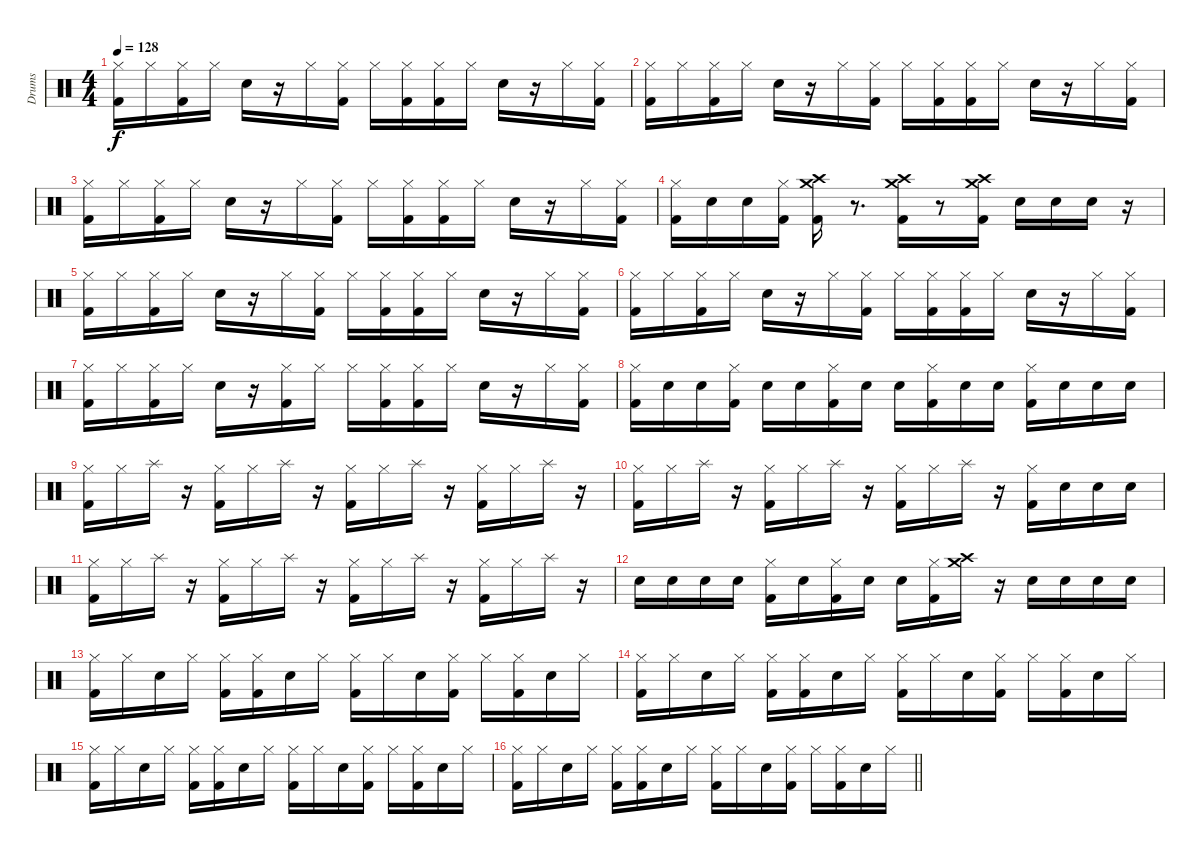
\track ("Drums" "Drums") {instrument percussion}
\staff {score}
\articulation defaults
\ts (4 4)
\tempo 128
\clef neutral
\ks c
("Hi-Hat (closed)" "Kick (hit) 2").16{dy f} "Hi-Hat (closed)".16 ("Hi-Hat (closed)" "Kick (hit) 2").16 "Hi-Hat (closed)".16 "Snare (hit) 2".16 r.16 "Hi-Hat (closed)".16 ("Hi-Hat (closed)" "Kick (hit) 2").16 "Hi-Hat (closed)".16 ("Hi-Hat (closed)" "Kick (hit) 2").16 ("Hi-Hat (closed)" "Kick (hit) 2").16 "Hi-Hat (closed)".16 "Snare (hit) 2".16 r.16 "Hi-Hat (closed)".16 ("Hi-Hat (closed)" "Kick (hit) 2").16 |
("Hi-Hat (closed)" "Kick (hit) 2").16 "Hi-Hat (closed)".16 ("Hi-Hat (closed)" "Kick (hit) 2").16 "Hi-Hat (closed)".16 "Snare (hit) 2".16 r.16 "Hi-Hat (closed)".16 ("Hi-Hat (closed)" "Kick (hit) 2").16 "Hi-Hat (closed)".16 ("Hi-Hat (closed)" "Kick (hit) 2").16 ("Hi-Hat (closed)" "Kick (hit) 2").16 "Hi-Hat (closed)".16 "Snare (hit) 2".16 r.16 "Hi-Hat (closed)".16 ("Hi-Hat (closed)" "Kick (hit) 2").16 |
("Hi-Hat (closed)" "Kick (hit) 2").16 "Hi-Hat (closed)".16 ("Hi-Hat (closed)" "Kick (hit) 2").16 "Hi-Hat (closed)".16 "Snare (hit) 2".16 r.16 "Hi-Hat (closed)".16 ("Hi-Hat (closed)" "Kick (hit) 2").16 "Hi-Hat (closed)".16 ("Hi-Hat (closed)" "Kick (hit) 2").16 ("Hi-Hat (closed)" "Kick (hit) 2").16 "Hi-Hat (closed)".16 "Snare (hit) 2".16 r.16 "Hi-Hat (closed)".16 ("Hi-Hat (closed)" "Kick (hit) 2").16 |
("Hi-Hat (closed)" "Kick (hit) 2").16 "Snare (hit) 2".16 "Snare (hit) 2".16 ("Hi-Hat (closed)" "Kick (hit) 2").16 ("Crash medium (hit)" "Crash high (hit)" "Kick (hit) 2").16 r.8{d} ("Crash medium (hit)" "Crash high (hit)" "Kick (hit) 2").16 r.8 ("Crash medium (hit)" "Crash high (hit)" "Kick (hit) 2").16 "Snare (hit) 2".16 "Snare (hit) 2".16 "Snare (hit) 2".16 r.16 |
("Hi-Hat (closed)" "Kick (hit) 2").16 "Hi-Hat (closed)".16 ("Hi-Hat (closed)" "Kick (hit) 2").16 "Hi-Hat (closed)".16 "Snare (hit) 2".16 r.16 "Hi-Hat (closed)".16 ("Hi-Hat (closed)" "Kick (hit) 2").16 "Hi-Hat (closed)".16 ("Hi-Hat (closed)" "Kick (hit) 2").16 ("Hi-Hat (closed)" "Kick (hit) 2").16 "Hi-Hat (closed)".16 "Snare (hit) 2".16 r.16 "Hi-Hat (closed)".16 ("Hi-Hat (closed)" "Kick (hit) 2").16 |
("Hi-Hat (closed)" "Kick (hit) 2").16 "Hi-Hat (closed)".16 ("Hi-Hat (closed)" "Kick (hit) 2").16 "Hi-Hat (closed)".16 "Snare (hit) 2".16 r.16 "Hi-Hat (closed)".16 ("Hi-Hat (closed)" "Kick (hit) 2").16 "Hi-Hat (closed)".16 ("Hi-Hat (closed)" "Kick (hit) 2").16 ("Hi-Hat (closed)" "Kick (hit) 2").16 "Hi-Hat (closed)".16 "Snare (hit) 2".16 r.16 "Hi-Hat (closed)".16 ("Hi-Hat (closed)" "Kick (hit) 2").16 |
("Hi-Hat (closed)" "Kick (hit) 2").16 "Hi-Hat (closed)".16 ("Hi-Hat (closed)" "Kick (hit) 2").16 "Hi-Hat (closed)".16 "Snare (hit) 2".16 r.16 ("Hi-Hat (closed)" "Kick (hit) 2").16 "Hi-Hat (closed)".16 "Hi-Hat (closed)".16 ("Hi-Hat (closed)" "Kick (hit) 2").16 ("Hi-Hat (closed)" "Kick (hit) 2").16 "Hi-Hat (closed)".16 "Snare (hit) 2".16 r.16 "Hi-Hat (closed)".16 ("Hi-Hat (closed)" "Kick (hit) 2").16 |
("Hi-Hat (closed)" "Kick (hit) 2").16 "Snare (hit) 2".16 "Snare (hit) 2".16 ("Hi-Hat (closed)" "Kick (hit) 2").16 "Snare (hit) 2".16 "Snare (hit) 2".16 ("Hi-Hat (closed)" "Kick (hit) 2").16 "Snare (hit) 2".16 "Snare (hit) 2".16 ("Hi-Hat (closed)" "Kick (hit) 2").16 "Snare (hit) 2".16 "Snare (hit) 2".16 ("Hi-Hat (closed)" "Kick (hit) 2").16 "Snare (hit) 2".16 "Snare (hit) 2".16 "Snare (hit) 2".16 |
("Hi-Hat (closed)" "Kick (hit) 2").16 "Hi-Hat (closed)".16 "Splash (hit)".16 r.16 ("Hi-Hat (closed)" "Kick (hit) 2").16 "Hi-Hat (closed)".16 "Splash (hit)".16 r.16 ("Hi-Hat (closed)" "Kick (hit) 2").16 "Hi-Hat (closed)".16 "Splash (hit)".16 r.16 ("Hi-Hat (closed)" "Kick (hit) 2").16 "Hi-Hat (closed)".16 "Splash (hit)".16 r.16 |
("Hi-Hat (closed)" "Kick (hit) 2").16 "Hi-Hat (closed)".16 "Splash (hit)".16 r.16 ("Hi-Hat (closed)" "Kick (hit) 2").16 "Hi-Hat (closed)".16 "Splash (hit)".16 r.16 ("Hi-Hat (closed)" "Kick (hit) 2").16 "Hi-Hat (closed)".16 "Splash (hit)".16 r.16 ("Hi-Hat (closed)" "Kick (hit) 2").16 "Snare (hit) 2".16 "Snare (hit) 2".16 "Snare (hit) 2".16 |
("Hi-Hat (closed)" "Kick (hit) 2").16 "Hi-Hat (closed)".16 "Splash (hit)".16 r.16 ("Hi-Hat (closed)" "Kick (hit) 2").16 "Hi-Hat (closed)".16 "Splash (hit)".16 r.16 ("Hi-Hat (closed)" "Kick (hit) 2").16 "Hi-Hat (closed)".16 "Splash (hit)".16 r.16 ("Hi-Hat (closed)" "Kick (hit) 2").16 "Hi-Hat (closed)".16 "Splash (hit)".16 r.16 |
"Snare (hit) 2".16 "Snare (hit) 2".16 "Snare (hit) 2".16 "Snare (hit) 2".16 ("Hi-Hat (closed)" "Kick (hit) 2").16 "Snare (hit) 2".16 ("Hi-Hat (closed)" "Kick (hit) 2").16 "Snare (hit) 2".16 "Snare (hit) 2".16 ("Hi-Hat (closed)" "Kick (hit) 2").16 ("Crash medium (hit)" "Crash high (hit)").16 r.16 "Snare (hit) 2".16 "Snare (hit) 2".16 "Snare (hit) 2".16 "Snare (hit) 2".16 |
("Hi-Hat (closed)" "Kick (hit) 2").16{volume 0} "Hi-Hat (closed)".16 "Snare (hit) 2".16 "Hi-Hat (closed)".16 ("Hi-Hat (closed)" "Kick (hit) 2").16 ("Hi-Hat (closed)" "Kick (hit) 2").16 "Snare (hit) 2".16 "Hi-Hat (closed)".16 ("Hi-Hat (closed)" "Kick (hit) 2").16 "Hi-Hat (closed)".16 "Snare (hit) 2".16 ("Hi-Hat (closed)" "Kick (hit) 2").16 "Hi-Hat (closed)".16 ("Hi-Hat (closed)" "Kick (hit) 2").16 "Snare (hit) 2".16 "Hi-Hat (closed)".16 |
("Hi-Hat (closed)" "Kick (hit) 2").16 "Hi-Hat (closed)".16 "Snare (hit) 2".16 "Hi-Hat (closed)".16 ("Hi-Hat (closed)" "Kick (hit) 2").16 ("Hi-Hat (closed)" "Kick (hit) 2").16 "Snare (hit) 2".16 "Hi-Hat (closed)".16 ("Hi-Hat (closed)" "Kick (hit) 2").16 "Hi-Hat (closed)".16 "Snare (hit) 2".16 ("Hi-Hat (closed)" "Kick (hit) 2").16 "Hi-Hat (closed)".16 ("Hi-Hat (closed)" "Kick (hit) 2").16 "Snare (hit) 2".16 "Hi-Hat (closed)".16 |
("Hi-Hat (closed)" "Kick (hit) 2").16 "Hi-Hat (closed)".16 "Snare (hit) 2".16 "Hi-Hat (closed)".16 ("Hi-Hat (closed)" "Kick (hit) 2").16 ("Hi-Hat (closed)" "Kick (hit) 2").16 "Snare (hit) 2".16 "Hi-Hat (closed)".16 ("Hi-Hat (closed)" "Kick (hit) 2").16 "Hi-Hat (closed)".16 "Snare (hit) 2".16 ("Hi-Hat (closed)" "Kick (hit) 2").16 "Hi-Hat (closed)".16 ("Hi-Hat (closed)" "Kick (hit) 2").16 "Snare (hit) 2".16 "Hi-Hat (closed)".16 |
\barLineRight lightlight
("Hi-Hat (closed)" "Kick (hit) 2").16 "Hi-Hat (closed)".16 "Snare (hit) 2".16 "Hi-Hat (closed)".16 ("Hi-Hat (closed)" "Kick (hit) 2").16 ("Hi-Hat (closed)" "Kick (hit) 2").16 "Snare (hit) 2".16 "Hi-Hat (closed)".16 ("Hi-Hat (closed)" "Kick (hit) 2").16 "Hi-Hat (closed)".16 "Snare (hit) 2".16 ("Hi-Hat (closed)" "Kick (hit) 2").16 "Hi-Hat (closed)".16 ("Hi-Hat (closed)" "Kick (hit) 2").16 "Snare (hit) 2".16 "Hi-Hat (closed)".16
